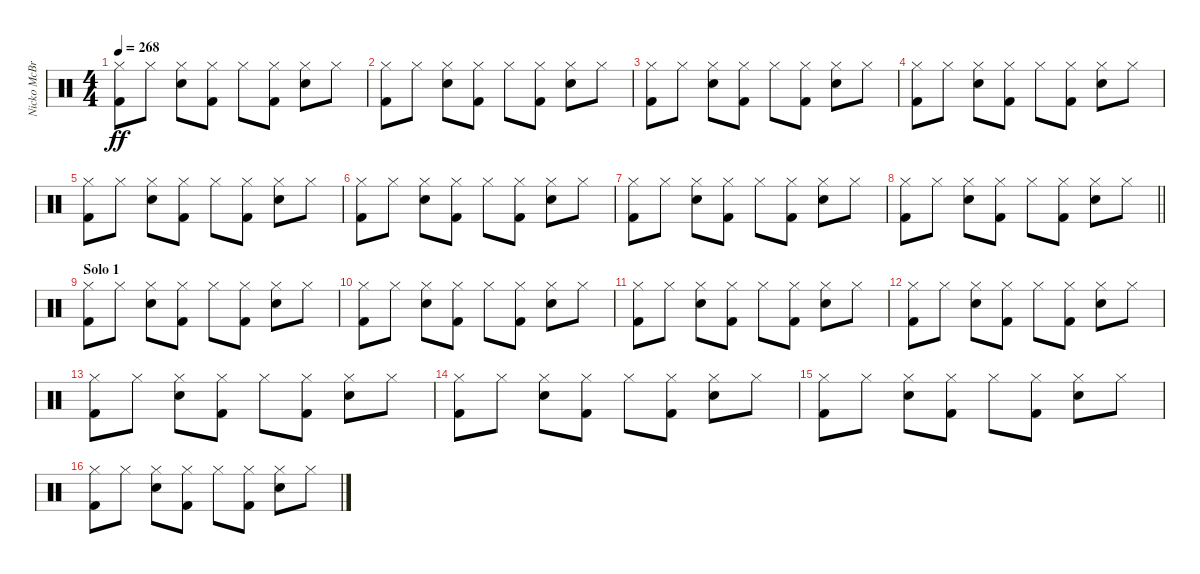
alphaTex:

\track ("Nicko McBrain" "Nicko McBr") {instrument percussion}
\staff {score}
\articulation defaults
\ts (4 4)
\tempo 268
\clef neutral
\ks c
("Kick (hit) 2" "Hi-Hat (closed)").8{dy ff} "Hi-Hat (closed)".8 ("Snare (hit) 2" "Hi-Hat (closed)").8 ("Kick (hit) 2" "Hi-Hat (closed)").8 "Hi-Hat (closed)".8 ("Kick (hit) 2" "Hi-Hat (closed)").8 ("Snare (hit) 2" "Hi-Hat (closed)").8 "Hi-Hat (closed)".8 |
("Kick (hit) 2" "Hi-Hat (closed)").8 "Hi-Hat (closed)".8 ("Snare (hit) 2" "Hi-Hat (closed)").8 ("Kick (hit) 2" "Hi-Hat (closed)").8 "Hi-Hat (closed)".8 ("Kick (hit) 2" "Hi-Hat (closed)").8 ("Snare (hit) 2" "Hi-Hat (closed)").8 "Hi-Hat (closed)".8 |
("Kick (hit) 2" "Hi-Hat (closed)").8 "Hi-Hat (closed)".8 ("Snare (hit) 2" "Hi-Hat (closed)").8 ("Kick (hit) 2" "Hi-Hat (closed)").8 "Hi-Hat (closed)".8 ("Kick (hit) 2" "Hi-Hat (closed)").8 ("Snare (hit) 2" "Hi-Hat (closed)").8 "Hi-Hat (closed)".8 |
("Kick (hit) 2" "Hi-Hat (closed)").8 "Hi-Hat (closed)".8 ("Snare (hit) 2" "Hi-Hat (closed)").8 ("Kick (hit) 2" "Hi-Hat (closed)").8 "Hi-Hat (closed)".8 ("Kick (hit) 2" "Hi-Hat (closed)").8 ("Snare (hit) 2" "Hi-Hat (closed)").8 "Hi-Hat (closed)".8 |
("Kick (hit) 2" "Hi-Hat (closed)").8 "Hi-Hat (closed)".8 ("Snare (hit) 2" "Hi-Hat (closed)").8 ("Kick (hit) 2" "Hi-Hat (closed)").8 "Hi-Hat (closed)".8 ("Kick (hit) 2" "Hi-Hat (closed)").8 ("Snare (hit) 2" "Hi-Hat (closed)").8 "Hi-Hat (closed)".8 |
("Kick (hit) 2" "Hi-Hat (closed)").8 "Hi-Hat (closed)".8 ("Snare (hit) 2" "Hi-Hat (closed)").8 ("Kick (hit) 2" "Hi-Hat (closed)").8 "Hi-Hat (closed)".8 ("Kick (hit) 2" "Hi-Hat (closed)").8 ("Snare (hit) 2" "Hi-Hat (closed)").8 "Hi-Hat (closed)".8 |
("Kick (hit) 2" "Hi-Hat (closed)").8 "Hi-Hat (closed)".8 ("Snare (hit) 2" "Hi-Hat (closed)").8 ("Kick (hit) 2" "Hi-Hat (closed)").8 "Hi-Hat (closed)".8 ("Kick (hit) 2" "Hi-Hat (closed)").8 ("Snare (hit) 2" "Hi-Hat (closed)").8 "Hi-Hat (closed)".8 |
\barLineRight lightlight
("Kick (hit) 2" "Hi-Hat (closed)").8 "Hi-Hat (closed)".8 ("Snare (hit) 2" "Hi-Hat (closed)").8 ("Kick (hit) 2" "Hi-Hat (closed)").8 "Hi-Hat (closed)".8 ("Kick (hit) 2" "Hi-Hat (closed)").8 ("Snare (hit) 2" "Hi-Hat (closed)").8 "Hi-Hat (closed)".8 |
\section ("" "Solo 1")
("Kick (hit) 2" "Hi-Hat (closed)").8 "Hi-Hat (closed)".8 ("Snare (hit) 2" "Hi-Hat (closed)").8 ("Kick (hit) 2" "Hi-Hat (closed)").8 "Hi-Hat (closed)".8 ("Kick (hit) 2" "Hi-Hat (closed)").8 ("Snare (hit) 2" "Hi-Hat (closed)").8 "Hi-Hat (closed)".8 |
("Kick (hit) 2" "Hi-Hat (closed)").8 "Hi-Hat (closed)".8 ("Snare (hit) 2" "Hi-Hat (closed)").8 ("Kick (hit) 2" "Hi-Hat (closed)").8 "Hi-Hat (closed)".8 ("Kick (hit) 2" "Hi-Hat (closed)").8 ("Snare (hit) 2" "Hi-Hat (closed)").8 "Hi-Hat (closed)".8 |
("Kick (hit) 2" "Hi-Hat (closed)").8 "Hi-Hat (closed)".8 ("Snare (hit) 2" "Hi-Hat (closed)").8 ("Kick (hit) 2" "Hi-Hat (closed)").8 "Hi-Hat (closed)".8 ("Kick (hit) 2" "Hi-Hat (closed)").8 ("Snare (hit) 2" "Hi-Hat (closed)").8 "Hi-Hat (closed)".8 |
("Kick (hit) 2" "Hi-Hat (closed)").8 "Hi-Hat (closed)".8 ("Snare (hit) 2" "Hi-Hat (closed)").8 ("Kick (hit) 2" "Hi-Hat (closed)").8 "Hi-Hat (closed)".8 ("Kick (hit) 2" "Hi-Hat (closed)").8 ("Snare (hit) 2" "Hi-Hat (closed)").8 "Hi-Hat (closed)".8 |
("Kick (hit) 2" "Hi-Hat (closed)").8 "Hi-Hat (closed)".8 ("Snare (hit) 2" "Hi-Hat (closed)").8 ("Kick (hit) 2" "Hi-Hat (closed)").8 "Hi-Hat (closed)".8 ("Kick (hit) 2" "Hi-Hat (closed)").8 ("Snare (hit) 2" "Hi-Hat (closed)").8 "Hi-Hat (closed)".8 |
("Kick (hit) 2" "Hi-Hat (closed)").8 "Hi-Hat (closed)".8 ("Snare (hit) 2" "Hi-Hat (closed)").8 ("Kick (hit) 2" "Hi-Hat (closed)").8 "Hi-Hat (closed)".8 ("Kick (hit) 2" "Hi-Hat (closed)").8 ("Snare (hit) 2" "Hi-Hat (closed)").8 "Hi-Hat (closed)".8 |
("Kick (hit) 2" "Hi-Hat (closed)").8 "Hi-Hat (closed)".8 ("Snare (hit) 2" "Hi-Hat (closed)").8 ("Kick (hit) 2" "Hi-Hat (closed)").8 "Hi-Hat (closed)".8 ("Kick (hit) 2" "Hi-Hat (closed)").8 ("Snare (hit) 2" "Hi-Hat (closed)").8 "Hi-Hat (closed)".8 |
("Kick (hit) 2" "Hi-Hat (closed)").8 "Hi-Hat (closed)".8 ("Snare (hit) 2" "Hi-Hat (closed)").8 ("Kick (hit) 2" "Hi-Hat (closed)").8 "Hi-Hat (closed)".8 ("Kick (hit) 2" "Hi-Hat (closed)").8 ("Snare (hit) 2" "Hi-Hat (closed)").8 "Hi-Hat (closed)".8
